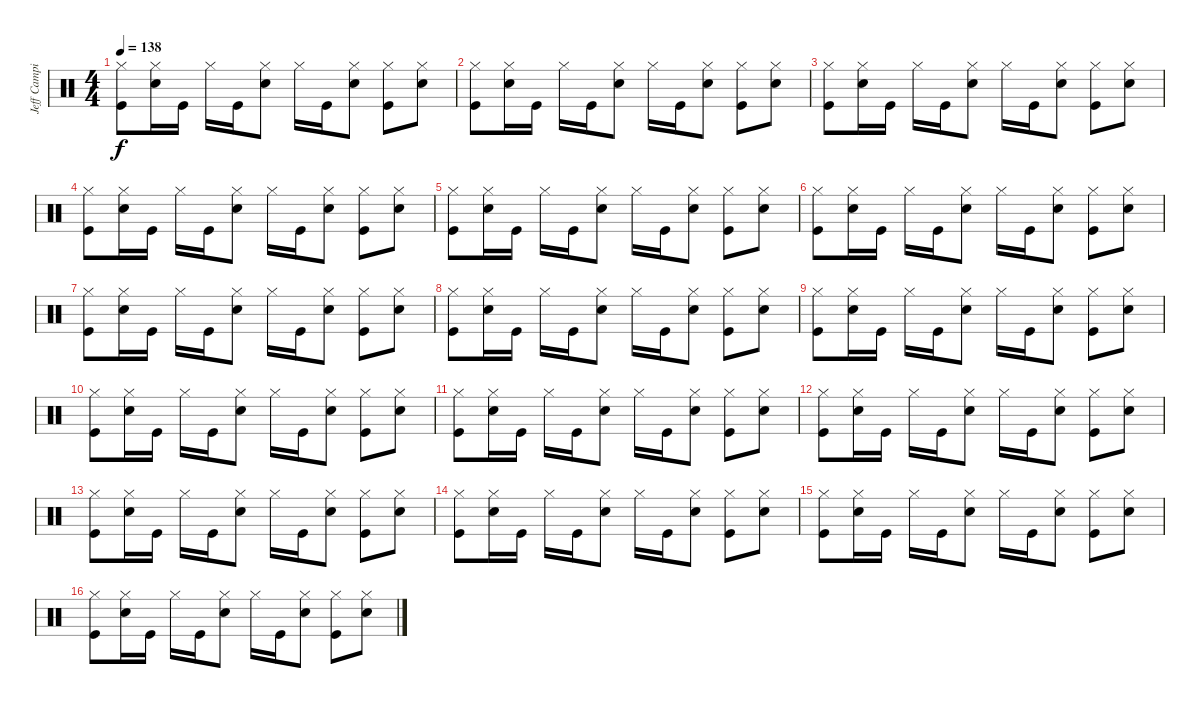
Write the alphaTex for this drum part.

\track ("Jeff Campitelli" "Jeff Campi") {instrument percussion}
\staff {score}
\articulation defaults
\ts (4 4)
\tempo 138
\clef neutral
\ks c
("Hi-Hat (closed)" "Kick (hit)").8{dy f} ("Electric Snare (hit)" "Hi-Hat (closed)").16 "Kick (hit)".16 "Hi-Hat (closed)".16 "Kick (hit)".16 ("Electric Snare (hit)" "Hi-Hat (closed)").8 "Hi-Hat (closed)".16 "Kick (hit)".16 ("Electric Snare (hit)" "Hi-Hat (closed)").8 ("Hi-Hat (closed)" "Kick (hit)").8 ("Electric Snare (hit)" "Hi-Hat (closed)").8 |
("Hi-Hat (closed)" "Kick (hit)").8 ("Electric Snare (hit)" "Hi-Hat (closed)").16 "Kick (hit)".16 "Hi-Hat (closed)".16 "Kick (hit)".16 ("Electric Snare (hit)" "Hi-Hat (closed)").8 "Hi-Hat (closed)".16 "Kick (hit)".16 ("Electric Snare (hit)" "Hi-Hat (closed)").8 ("Hi-Hat (closed)" "Kick (hit)").8 ("Electric Snare (hit)" "Hi-Hat (closed)").8 |
("Hi-Hat (closed)" "Kick (hit)").8 ("Electric Snare (hit)" "Hi-Hat (closed)").16 "Kick (hit)".16 "Hi-Hat (closed)".16 "Kick (hit)".16 ("Electric Snare (hit)" "Hi-Hat (closed)").8 "Hi-Hat (closed)".16 "Kick (hit)".16 ("Electric Snare (hit)" "Hi-Hat (closed)").8 ("Hi-Hat (closed)" "Kick (hit)").8 ("Electric Snare (hit)" "Hi-Hat (closed)").8 |
("Hi-Hat (closed)" "Kick (hit)").8 ("Electric Snare (hit)" "Hi-Hat (closed)").16 "Kick (hit)".16 "Hi-Hat (closed)".16 "Kick (hit)".16 ("Electric Snare (hit)" "Hi-Hat (closed)").8 "Hi-Hat (closed)".16 "Kick (hit)".16 ("Electric Snare (hit)" "Hi-Hat (closed)").8 ("Hi-Hat (closed)" "Kick (hit)").8 ("Electric Snare (hit)" "Hi-Hat (closed)").8 |
("Hi-Hat (closed)" "Kick (hit)").8 ("Electric Snare (hit)" "Hi-Hat (closed)").16 "Kick (hit)".16 "Hi-Hat (closed)".16 "Kick (hit)".16 ("Electric Snare (hit)" "Hi-Hat (closed)").8 "Hi-Hat (closed)".16 "Kick (hit)".16 ("Electric Snare (hit)" "Hi-Hat (closed)").8 ("Hi-Hat (closed)" "Kick (hit)").8 ("Electric Snare (hit)" "Hi-Hat (closed)").8 |
("Hi-Hat (closed)" "Kick (hit)").8 ("Electric Snare (hit)" "Hi-Hat (closed)").16 "Kick (hit)".16 "Hi-Hat (closed)".16 "Kick (hit)".16 ("Electric Snare (hit)" "Hi-Hat (closed)").8 "Hi-Hat (closed)".16 "Kick (hit)".16 ("Electric Snare (hit)" "Hi-Hat (closed)").8 ("Hi-Hat (closed)" "Kick (hit)").8 ("Electric Snare (hit)" "Hi-Hat (closed)").8 |
("Hi-Hat (closed)" "Kick (hit)").8 ("Electric Snare (hit)" "Hi-Hat (closed)").16 "Kick (hit)".16 "Hi-Hat (closed)".16 "Kick (hit)".16 ("Electric Snare (hit)" "Hi-Hat (closed)").8 "Hi-Hat (closed)".16 "Kick (hit)".16 ("Electric Snare (hit)" "Hi-Hat (closed)").8 ("Hi-Hat (closed)" "Kick (hit)").8 ("Electric Snare (hit)" "Hi-Hat (closed)").8 |
("Hi-Hat (closed)" "Kick (hit)").8 ("Electric Snare (hit)" "Hi-Hat (closed)").16 "Kick (hit)".16 "Hi-Hat (closed)".16 "Kick (hit)".16 ("Electric Snare (hit)" "Hi-Hat (closed)").8 "Hi-Hat (closed)".16 "Kick (hit)".16 ("Electric Snare (hit)" "Hi-Hat (closed)").8 ("Hi-Hat (closed)" "Kick (hit)").8 ("Electric Snare (hit)" "Hi-Hat (closed)").8 |
("Hi-Hat (closed)" "Kick (hit)").8 ("Electric Snare (hit)" "Hi-Hat (closed)").16 "Kick (hit)".16 "Hi-Hat (closed)".16 "Kick (hit)".16 ("Electric Snare (hit)" "Hi-Hat (closed)").8 "Hi-Hat (closed)".16 "Kick (hit)".16 ("Electric Snare (hit)" "Hi-Hat (closed)").8 ("Hi-Hat (closed)" "Kick (hit)").8 ("Electric Snare (hit)" "Hi-Hat (closed)").8 |
("Hi-Hat (closed)" "Kick (hit)").8 ("Electric Snare (hit)" "Hi-Hat (closed)").16 "Kick (hit)".16 "Hi-Hat (closed)".16 "Kick (hit)".16 ("Electric Snare (hit)" "Hi-Hat (closed)").8 "Hi-Hat (closed)".16 "Kick (hit)".16 ("Electric Snare (hit)" "Hi-Hat (closed)").8 ("Hi-Hat (closed)" "Kick (hit)").8 ("Electric Snare (hit)" "Hi-Hat (closed)").8 |
("Hi-Hat (closed)" "Kick (hit)").8 ("Electric Snare (hit)" "Hi-Hat (closed)").16 "Kick (hit)".16 "Hi-Hat (closed)".16 "Kick (hit)".16 ("Electric Snare (hit)" "Hi-Hat (closed)").8 "Hi-Hat (closed)".16 "Kick (hit)".16 ("Electric Snare (hit)" "Hi-Hat (closed)").8 ("Hi-Hat (closed)" "Kick (hit)").8 ("Electric Snare (hit)" "Hi-Hat (closed)").8 |
("Hi-Hat (closed)" "Kick (hit)").8 ("Electric Snare (hit)" "Hi-Hat (closed)").16 "Kick (hit)".16 "Hi-Hat (closed)".16 "Kick (hit)".16 ("Electric Snare (hit)" "Hi-Hat (closed)").8 "Hi-Hat (closed)".16 "Kick (hit)".16 ("Electric Snare (hit)" "Hi-Hat (closed)").8 ("Hi-Hat (closed)" "Kick (hit)").8 ("Electric Snare (hit)" "Hi-Hat (closed)").8 |
("Hi-Hat (closed)" "Kick (hit)").8 ("Electric Snare (hit)" "Hi-Hat (closed)").16 "Kick (hit)".16 "Hi-Hat (closed)".16 "Kick (hit)".16 ("Electric Snare (hit)" "Hi-Hat (closed)").8 "Hi-Hat (closed)".16 "Kick (hit)".16 ("Electric Snare (hit)" "Hi-Hat (closed)").8 ("Hi-Hat (closed)" "Kick (hit)").8 ("Electric Snare (hit)" "Hi-Hat (closed)").8 |
("Hi-Hat (closed)" "Kick (hit)").8 ("Electric Snare (hit)" "Hi-Hat (closed)").16 "Kick (hit)".16 "Hi-Hat (closed)".16 "Kick (hit)".16 ("Electric Snare (hit)" "Hi-Hat (closed)").8 "Hi-Hat (closed)".16 "Kick (hit)".16 ("Electric Snare (hit)" "Hi-Hat (closed)").8 ("Hi-Hat (closed)" "Kick (hit)").8 ("Electric Snare (hit)" "Hi-Hat (closed)").8 |
("Hi-Hat (closed)" "Kick (hit)").8 ("Electric Snare (hit)" "Hi-Hat (closed)").16 "Kick (hit)".16 "Hi-Hat (closed)".16 "Kick (hit)".16 ("Electric Snare (hit)" "Hi-Hat (closed)").8 "Hi-Hat (closed)".16 "Kick (hit)".16 ("Electric Snare (hit)" "Hi-Hat (closed)").8 ("Hi-Hat (closed)" "Kick (hit)").8 ("Electric Snare (hit)" "Hi-Hat (closed)").8 |
("Hi-Hat (closed)" "Kick (hit)").8 ("Electric Snare (hit)" "Hi-Hat (closed)").16 "Kick (hit)".16 "Hi-Hat (closed)".16 "Kick (hit)".16 ("Electric Snare (hit)" "Hi-Hat (closed)").8 "Hi-Hat (closed)".16 "Kick (hit)".16 ("Electric Snare (hit)" "Hi-Hat (closed)").8 ("Hi-Hat (closed)" "Kick (hit)").8 ("Electric Snare (hit)" "Hi-Hat (closed)").8
